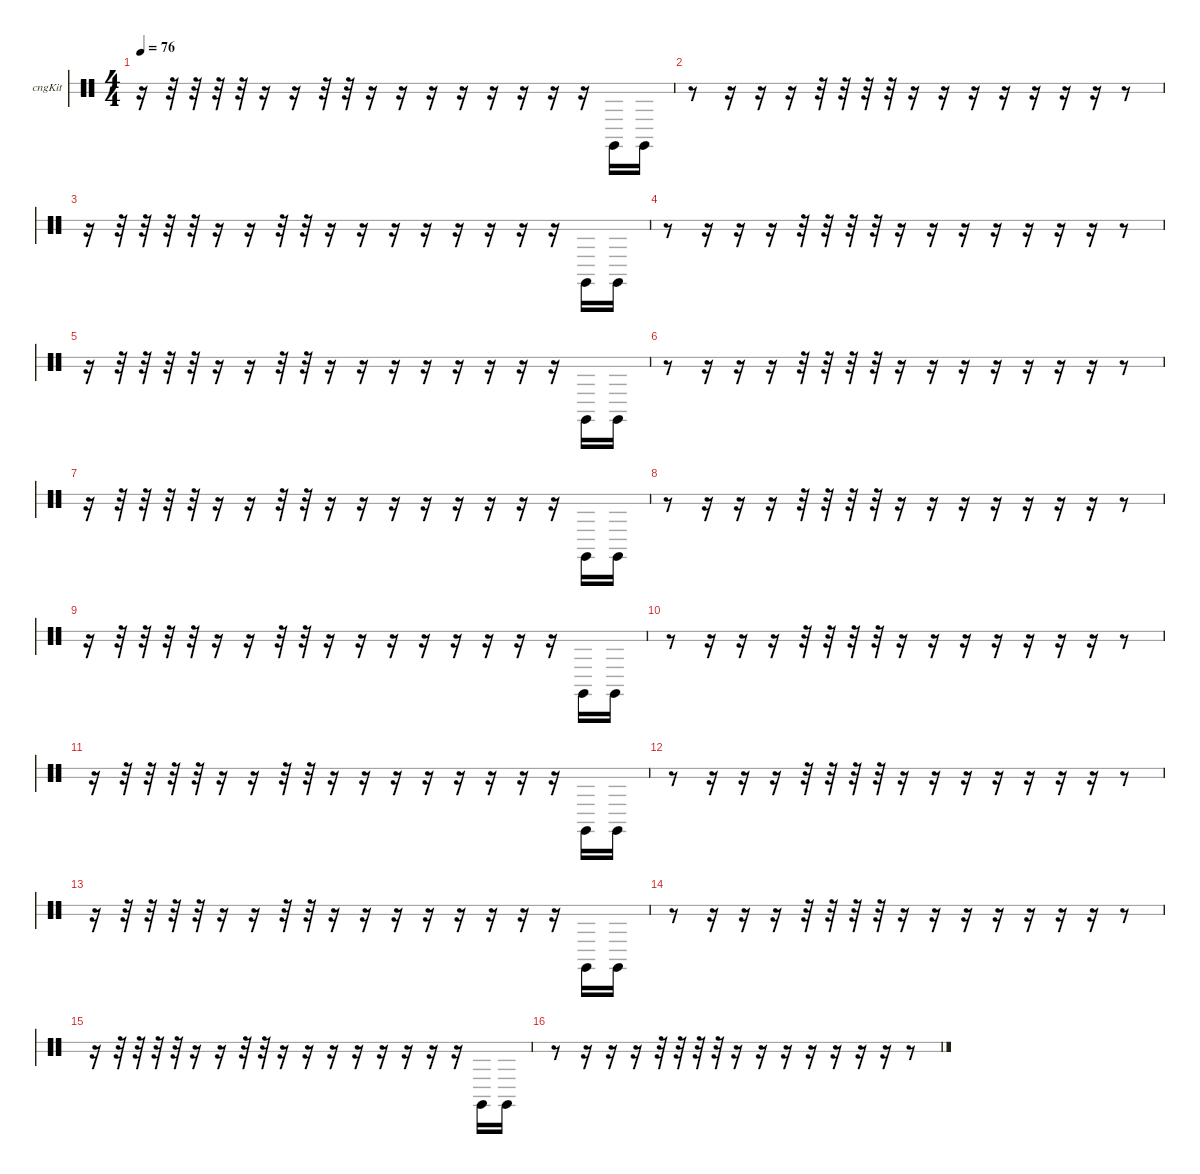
\hideDynamics
\bracketExtendMode nobrackets
\firstSystemTrackNameOrientation horizontal
\otherSystemsTrackNameOrientation horizontal
\track ("Congas" "cngKit") {instrument percussion}
\staff {score 2}
\articulation defaults
\ts (4 4)
\tempo 76
\clef neutral
\ks c
r.16{dy f beam Down} r.32{beam Down} r.32{beam Down} r.32{beam Down} r.32{beam Down} r.16{beam Down} r.16{beam Down} r.32{beam Down} r.32{beam Down} r.16{beam Down} r.16{beam Down} r.16{beam Down} r.16{beam Down} r.16{beam Down} r.16{beam Down} r.16{beam Down} r.16{beam Down} "Conga high (hit)".16{beam Down} "Conga high (hit)".16{beam Down} |
r.8{beam Down} r.16{beam Down} r.16{beam Down} r.16{beam Down} r.32{beam Down} r.32{beam Down} r.32{beam Down} r.32{beam Down} r.16{beam Down} r.16{beam Down} r.16{beam Down} r.16{beam Down} r.16{beam Down} r.16{beam Down} r.16{beam Down} r.8{beam Down} |
r.16{beam Down} r.32{beam Down} r.32{beam Down} r.32{beam Down} r.32{beam Down} r.16{beam Down} r.16{beam Down} r.32{beam Down} r.32{beam Down} r.16{beam Down} r.16{beam Down} r.16{beam Down} r.16{beam Down} r.16{beam Down} r.16{beam Down} r.16{beam Down} r.16{beam Down} "Conga high (hit)".16{beam Down} "Conga high (hit)".16{beam Down} |
r.8{beam Down} r.16{beam Down} r.16{beam Down} r.16{beam Down} r.32{beam Down} r.32{beam Down} r.32{beam Down} r.32{beam Down} r.16{beam Down} r.16{beam Down} r.16{beam Down} r.16{beam Down} r.16{beam Down} r.16{beam Down} r.16{beam Down} r.8{beam Down} |
r.16{beam Down} r.32{beam Down} r.32{beam Down} r.32{beam Down} r.32{beam Down} r.16{beam Down} r.16{beam Down} r.32{beam Down} r.32{beam Down} r.16{beam Down} r.16{beam Down} r.16{beam Down} r.16{beam Down} r.16{beam Down} r.16{beam Down} r.16{beam Down} r.16{beam Down} "Conga high (hit)".16{beam Down} "Conga high (hit)".16{beam Down} |
r.8{beam Down} r.16{beam Down} r.16{beam Down} r.16{beam Down} r.32{beam Down} r.32{beam Down} r.32{beam Down} r.32{beam Down} r.16{beam Down} r.16{beam Down} r.16{beam Down} r.16{beam Down} r.16{beam Down} r.16{beam Down} r.16{beam Down} r.8{beam Down} |
r.16{beam Down} r.32{beam Down} r.32{beam Down} r.32{beam Down} r.32{beam Down} r.16{beam Down} r.16{beam Down} r.32{beam Down} r.32{beam Down} r.16{beam Down} r.16{beam Down} r.16{beam Down} r.16{beam Down} r.16{beam Down} r.16{beam Down} r.16{beam Down} r.16{beam Down} "Conga high (hit)".16{beam Down} "Conga high (hit)".16{beam Down} |
r.8{beam Down} r.16{beam Down} r.16{beam Down} r.16{beam Down} r.32{beam Down} r.32{beam Down} r.32{beam Down} r.32{beam Down} r.16{beam Down} r.16{beam Down} r.16{beam Down} r.16{beam Down} r.16{beam Down} r.16{beam Down} r.16{beam Down} r.8{beam Down} |
r.16{beam Down} r.32{beam Down} r.32{beam Down} r.32{beam Down} r.32{beam Down} r.16{beam Down} r.16{beam Down} r.32{beam Down} r.32{beam Down} r.16{beam Down} r.16{beam Down} r.16{beam Down} r.16{beam Down} r.16{beam Down} r.16{beam Down} r.16{beam Down} r.16{beam Down} "Conga high (hit)".16{beam Down} "Conga high (hit)".16{beam Down} |
r.8{beam Down} r.16{beam Down} r.16{beam Down} r.16{beam Down} r.32{beam Down} r.32{beam Down} r.32{beam Down} r.32{beam Down} r.16{beam Down} r.16{beam Down} r.16{beam Down} r.16{beam Down} r.16{beam Down} r.16{beam Down} r.16{beam Down} r.8{beam Down} |
r.16{beam Down} r.32{beam Down} r.32{beam Down} r.32{beam Down} r.32{beam Down} r.16{beam Down} r.16{beam Down} r.32{beam Down} r.32{beam Down} r.16{beam Down} r.16{beam Down} r.16{beam Down} r.16{beam Down} r.16{beam Down} r.16{beam Down} r.16{beam Down} r.16{beam Down} "Conga high (hit)".16{beam Down} "Conga high (hit)".16{beam Down} |
r.8{beam Down} r.16{beam Down} r.16{beam Down} r.16{beam Down} r.32{beam Down} r.32{beam Down} r.32{beam Down} r.32{beam Down} r.16{beam Down} r.16{beam Down} r.16{beam Down} r.16{beam Down} r.16{beam Down} r.16{beam Down} r.16{beam Down} r.8{beam Down} |
r.16{beam Down} r.32{beam Down} r.32{beam Down} r.32{beam Down} r.32{beam Down} r.16{beam Down} r.16{beam Down} r.32{beam Down} r.32{beam Down} r.16{beam Down} r.16{beam Down} r.16{beam Down} r.16{beam Down} r.16{beam Down} r.16{beam Down} r.16{beam Down} r.16{beam Down} "Conga high (hit)".16{beam Down} "Conga high (hit)".16{beam Down} |
r.8{beam Down} r.16{beam Down} r.16{beam Down} r.16{beam Down} r.32{beam Down} r.32{beam Down} r.32{beam Down} r.32{beam Down} r.16{beam Down} r.16{beam Down} r.16{beam Down} r.16{beam Down} r.16{beam Down} r.16{beam Down} r.16{beam Down} r.8{beam Down} |
r.16{beam Down} r.32{beam Down} r.32{beam Down} r.32{beam Down} r.32{beam Down} r.16{beam Down} r.16{beam Down} r.32{beam Down} r.32{beam Down} r.16{beam Down} r.16{beam Down} r.16{beam Down} r.16{beam Down} r.16{beam Down} r.16{beam Down} r.16{beam Down} r.16{beam Down} "Conga high (hit)".16{beam Down} "Conga high (hit)".16{beam Down} |
r.8{beam Down} r.16{beam Down} r.16{beam Down} r.16{beam Down} r.32{beam Down} r.32{beam Down} r.32{beam Down} r.32{beam Down} r.16{beam Down} r.16{beam Down} r.16{beam Down} r.16{beam Down} r.16{beam Down} r.16{beam Down} r.16{beam Down} r.8{beam Down}
